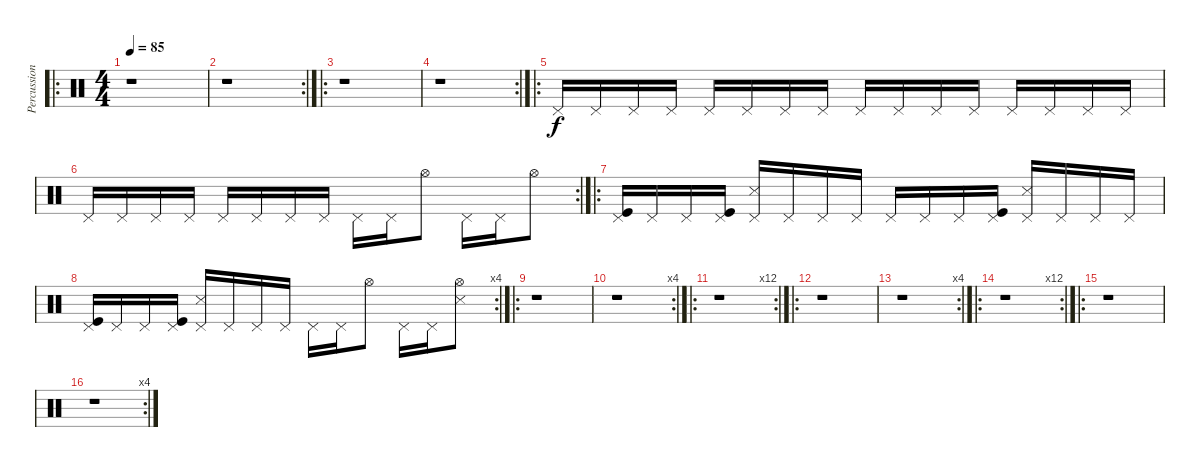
\track ("Percussions" "Percussion") {instrument percussion}
\staff {score}
\articulation defaults
\ro
\ts (4 4)
\tempo 85
\clef neutral
\ks c
r.1{dy f} |
\rc 2
r.1 |
\ro
r.1 |
\rc 2
r.1 |
\ro "Pedal Hi-Hat (hit)".16 "Pedal Hi-Hat (hit)".16 "Pedal Hi-Hat (hit)".16 "Pedal Hi-Hat (hit)".16 "Pedal Hi-Hat (hit)".16 "Pedal Hi-Hat (hit)".16 "Pedal Hi-Hat (hit)".16 "Pedal Hi-Hat (hit)".16 "Pedal Hi-Hat (hit)".16 "Pedal Hi-Hat (hit)".16 "Pedal Hi-Hat (hit)".16 "Pedal Hi-Hat (hit)".16 "Pedal Hi-Hat (hit)".16 "Pedal Hi-Hat (hit)".16 "Pedal Hi-Hat (hit)".16 "Pedal Hi-Hat (hit)".16
|
\rc 2 "Pedal Hi-Hat (hit)".16 "Pedal Hi-Hat (hit)".16 "Pedal Hi-Hat (hit)".16 "Pedal Hi-Hat (hit)".16 "Pedal Hi-Hat (hit)".16 "Pedal Hi-Hat (hit)".16 "Pedal Hi-Hat (hit)".16 "Pedal Hi-Hat (hit)".16 "Pedal Hi-Hat (hit)".16 "Pedal Hi-Hat (hit)".16 "Hi-Hat (open)".8 "Pedal Hi-Hat (hit)".16 "Pedal Hi-Hat (hit)".16 "Hi-Hat (open)".8
|
\ro
("Pedal Hi-Hat (hit)" "Kick (hit)").16 "Pedal Hi-Hat (hit)".16 "Pedal Hi-Hat (hit)".16 ("Pedal Hi-Hat (hit)" "Kick (hit)").16 ("Pedal Hi-Hat (hit)" "Snare (side stick) 3").16 "Pedal Hi-Hat (hit)".16 "Pedal Hi-Hat (hit)".16 "Pedal Hi-Hat (hit)".16 "Pedal Hi-Hat (hit)".16 "Pedal Hi-Hat (hit)".16 "Pedal Hi-Hat (hit)".16 ("Pedal Hi-Hat (hit)" "Kick (hit)").16 ("Pedal Hi-Hat (hit)" "Snare (side stick) 3").16 "Pedal Hi-Hat (hit)".16 "Pedal Hi-Hat (hit)".16 "Pedal Hi-Hat (hit)".16 |
\rc 4
("Pedal Hi-Hat (hit)" "Kick (hit)").16 "Pedal Hi-Hat (hit)".16 "Pedal Hi-Hat (hit)".16 ("Pedal Hi-Hat (hit)" "Kick (hit)").16 ("Pedal Hi-Hat (hit)" "Snare (side stick) 3").16 "Pedal Hi-Hat (hit)".16 "Pedal Hi-Hat (hit)".16 "Pedal Hi-Hat (hit)".16 "Pedal Hi-Hat (hit)".16 "Pedal Hi-Hat (hit)".16 "Hi-Hat (open)".8 "Pedal Hi-Hat (hit)".16 "Pedal Hi-Hat (hit)".16 ("Hi-Hat (open)" "Snare (side stick) 3").8 |
\ro
r.1 |
\rc 4
r.1 |
\ro
\rc 12
r.1 |
\ro
r.1 |
\rc 4
r.1 |
\ro
\rc 12
r.1 |
\ro
r.1 |
\rc 4
r.1
